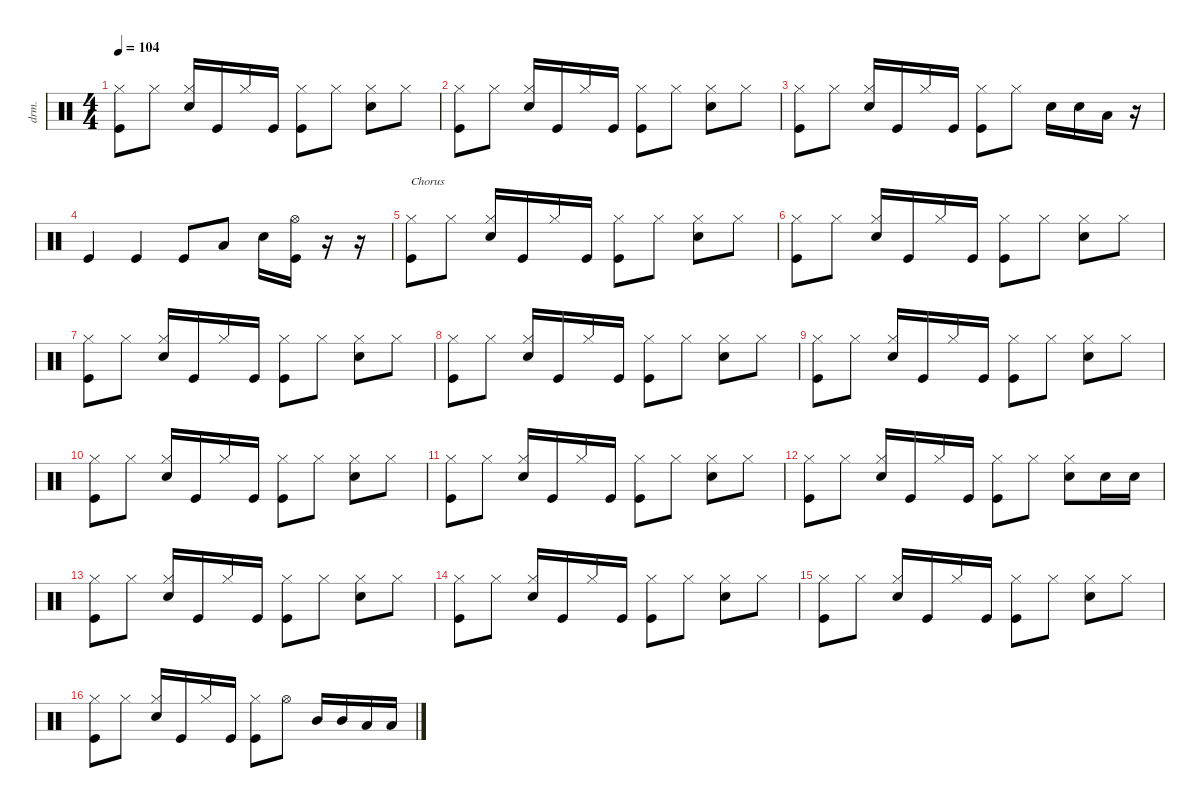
\defaultSystemsLayout 4
\hideDynamics
\bracketExtendMode nobrackets
\otherSystemsTrackNameOrientation horizontal
\track ("Drumkit" "drm.") {instrument percussion}
\staff {score}
\articulation defaults
\ts (4 4)
\tempo 104
\clef neutral
\ks c
("Kick (hit)" "Hi-Hat (closed)").8{dy mf beam Down} "Hi-Hat (closed)".8{beam Down} ("Hi-Hat (closed)" "Snare (hit) 2").16{beam Up} "Kick (hit)".16{beam Up} "Hi-Hat (closed)".16{beam Up} "Kick (hit)".16{beam Up} ("Hi-Hat (closed)" "Kick (hit)").8{beam Down} "Hi-Hat (closed)".8{beam Down} ("Hi-Hat (closed)" "Snare (hit) 2").8{beam Down} "Hi-Hat (closed)".8{beam Down} |
("Kick (hit)" "Hi-Hat (closed)").8{beam Down} "Hi-Hat (closed)".8{beam Down} ("Hi-Hat (closed)" "Snare (hit) 2").16{beam Up} "Kick (hit)".16{beam Up} "Hi-Hat (closed)".16{beam Up} "Kick (hit)".16{beam Up} ("Hi-Hat (closed)" "Kick (hit)").8{beam Down} "Hi-Hat (closed)".8{beam Down} ("Hi-Hat (closed)" "Snare (hit) 2").8{beam Down} "Hi-Hat (closed)".8{beam Down} |
("Kick (hit)" "Hi-Hat (closed)").8{beam Down} "Hi-Hat (closed)".8{beam Down} ("Hi-Hat (closed)" "Snare (hit) 2").16{beam Up} "Kick (hit)".16{beam Up} "Hi-Hat (closed)".16{beam Up} "Kick (hit)".16{beam Up} ("Hi-Hat (closed)" "Kick (hit)").8{beam Down} "Hi-Hat (closed)".8{beam Down} "Snare (hit) 2".16{beam Down} "Snare (hit) 2".16{beam Down} "Low Tom (hit)".16{beam Down} r.16{beam Down} |
"Kick (hit)".4{beam Up} "Kick (hit)".4{beam Up} "Kick (hit)".8{beam Up} "Low Tom (hit)".8{beam Up} "Snare (hit) 2".16{beam Down} ("Kick (hit)" "Hi-Hat (open)").16{beam Down} r.16{beam Down} r.16{beam Down} |
("Kick (hit)" "Hi-Hat (closed)").8{txt "Chorus" beam Down} "Hi-Hat (closed)".8{beam Down} ("Hi-Hat (closed)" "Snare (hit) 2").16{beam Up} "Kick (hit)".16{beam Up} "Hi-Hat (closed)".16{beam Up} "Kick (hit)".16{beam Up} ("Hi-Hat (closed)" "Kick (hit)").8{beam Down} "Hi-Hat (closed)".8{beam Down} ("Hi-Hat (closed)" "Snare (hit) 2").8{beam Down} "Hi-Hat (closed)".8{beam Down} |
("Kick (hit)" "Hi-Hat (closed)").8{beam Down} "Hi-Hat (closed)".8{beam Down} ("Hi-Hat (closed)" "Snare (hit) 2").16{beam Up} "Kick (hit)".16{beam Up} "Hi-Hat (closed)".16{beam Up} "Kick (hit)".16{beam Up} ("Hi-Hat (closed)" "Kick (hit)").8{beam Down} "Hi-Hat (closed)".8{beam Down} ("Hi-Hat (closed)" "Snare (hit) 2").8{beam Down} "Hi-Hat (closed)".8{beam Down} |
("Kick (hit)" "Hi-Hat (closed)").8{beam Down} "Hi-Hat (closed)".8{beam Down} ("Hi-Hat (closed)" "Snare (hit) 2").16{beam Up} "Kick (hit)".16{beam Up} "Hi-Hat (closed)".16{beam Up} "Kick (hit)".16{beam Up} ("Hi-Hat (closed)" "Kick (hit)").8{beam Down} "Hi-Hat (closed)".8{beam Down} ("Hi-Hat (closed)" "Snare (hit) 2").8{beam Down} "Hi-Hat (closed)".8{beam Down} |
("Kick (hit)" "Hi-Hat (closed)").8{beam Down} "Hi-Hat (closed)".8{beam Down} ("Hi-Hat (closed)" "Snare (hit) 2").16{beam Up} "Kick (hit)".16{beam Up} "Hi-Hat (closed)".16{beam Up} "Kick (hit)".16{beam Up} ("Hi-Hat (closed)" "Kick (hit)").8{beam Down} "Hi-Hat (closed)".8{beam Down} ("Hi-Hat (closed)" "Snare (hit) 2").8{beam Down} "Hi-Hat (closed)".8{beam Down} |
("Kick (hit)" "Hi-Hat (closed)").8{beam Down} "Hi-Hat (closed)".8{beam Down} ("Hi-Hat (closed)" "Snare (hit) 2").16{beam Up} "Kick (hit)".16{beam Up} "Hi-Hat (closed)".16{beam Up} "Kick (hit)".16{beam Up} ("Hi-Hat (closed)" "Kick (hit)").8{beam Down} "Hi-Hat (closed)".8{beam Down} ("Hi-Hat (closed)" "Snare (hit) 2").8{beam Down} "Hi-Hat (closed)".8{beam Down} |
("Kick (hit)" "Hi-Hat (closed)").8{beam Down} "Hi-Hat (closed)".8{beam Down} ("Hi-Hat (closed)" "Snare (hit) 2").16{beam Up} "Kick (hit)".16{beam Up} "Hi-Hat (closed)".16{beam Up} "Kick (hit)".16{beam Up} ("Hi-Hat (closed)" "Kick (hit)").8{beam Down} "Hi-Hat (closed)".8{beam Down} ("Hi-Hat (closed)" "Snare (hit) 2").8{beam Down} "Hi-Hat (closed)".8{beam Down} |
("Kick (hit)" "Hi-Hat (closed)").8{beam Down} "Hi-Hat (closed)".8{beam Down} ("Hi-Hat (closed)" "Snare (hit) 2").16{beam Up} "Kick (hit)".16{beam Up} "Hi-Hat (closed)".16{beam Up} "Kick (hit)".16{beam Up} ("Hi-Hat (closed)" "Kick (hit)").8{beam Down} "Hi-Hat (closed)".8{beam Down} ("Hi-Hat (closed)" "Snare (hit) 2").8{beam Down} "Hi-Hat (closed)".8{beam Down} |
("Kick (hit)" "Hi-Hat (closed)").8{beam Down} "Hi-Hat (closed)".8{beam Down} ("Hi-Hat (closed)" "Snare (hit) 2").16{beam Up} "Kick (hit)".16{beam Up} "Hi-Hat (closed)".16{beam Up} "Kick (hit)".16{beam Up} ("Hi-Hat (closed)" "Kick (hit)").8{beam Down} "Hi-Hat (closed)".8{beam Down} ("Hi-Hat (closed)" "Snare (hit) 2").8{beam Down} "Snare (hit) 2".16{beam Down} "Snare (hit) 2".16{beam Down} |
("Kick (hit)" "Hi-Hat (closed)").8{beam Down} "Hi-Hat (closed)".8{beam Down} ("Hi-Hat (closed)" "Snare (hit) 2").16{beam Up} "Kick (hit)".16{beam Up} "Hi-Hat (closed)".16{beam Up} "Kick (hit)".16{beam Up} ("Hi-Hat (closed)" "Kick (hit)").8{beam Down} "Hi-Hat (closed)".8{beam Down} ("Hi-Hat (closed)" "Snare (hit) 2").8{beam Down} "Hi-Hat (closed)".8{beam Down} |
("Kick (hit)" "Hi-Hat (closed)").8{beam Down} "Hi-Hat (closed)".8{beam Down} ("Hi-Hat (closed)" "Snare (hit) 2").16{beam Up} "Kick (hit)".16{beam Up} "Hi-Hat (closed)".16{beam Up} "Kick (hit)".16{beam Up} ("Hi-Hat (closed)" "Kick (hit)").8{beam Down} "Hi-Hat (closed)".8{beam Down} ("Hi-Hat (closed)" "Snare (hit) 2").8{beam Down} "Hi-Hat (closed)".8{beam Down} |
("Kick (hit)" "Hi-Hat (closed)").8{beam Down} "Hi-Hat (closed)".8{beam Down} ("Hi-Hat (closed)" "Snare (hit) 2").16{beam Up} "Kick (hit)".16{beam Up} "Hi-Hat (closed)".16{beam Up} "Kick (hit)".16{beam Up} ("Hi-Hat (closed)" "Kick (hit)").8{beam Down} "Hi-Hat (closed)".8{beam Down} ("Hi-Hat (closed)" "Snare (hit) 2").8{beam Down} "Hi-Hat (closed)".8{beam Down} |
("Kick (hit)" "Hi-Hat (closed)").8{beam Down} "Hi-Hat (closed)".8{beam Down} ("Hi-Hat (closed)" "Snare (hit) 2").16{beam Up} "Kick (hit)".16{beam Up} "Hi-Hat (closed)".16{beam Up} "Kick (hit)".16{beam Up} ("Hi-Hat (closed)" "Kick (hit)").8{beam Down} "Hi-Hat (open)".8{beam Down} "Mid Tom (hit)".16{beam Up} "Mid Tom (hit)".16{beam Up} "Low Tom (hit)".16{beam Up} "Low Tom (hit)".16{beam Up}
